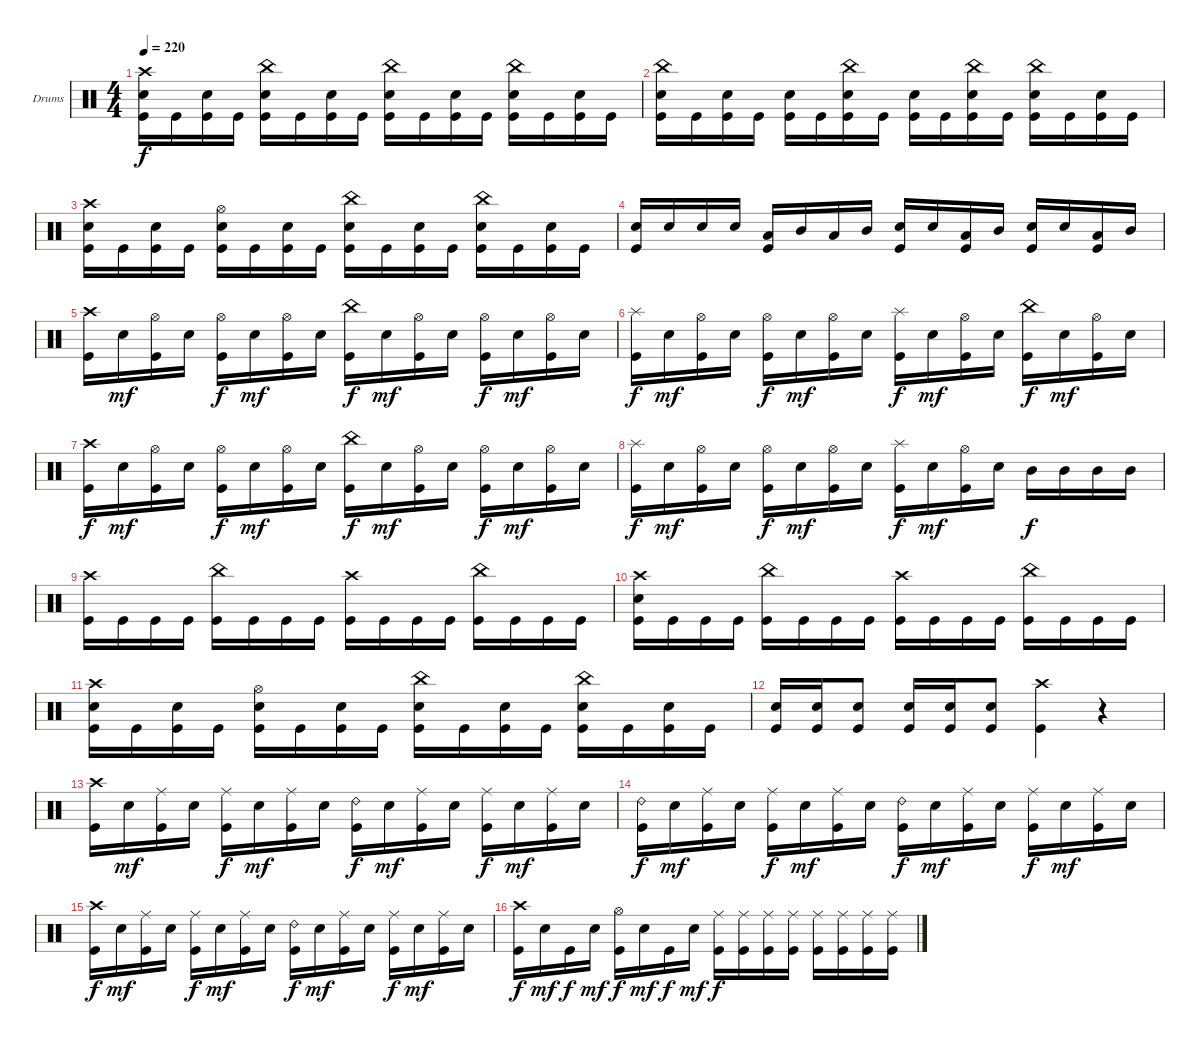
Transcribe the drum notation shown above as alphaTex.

\defaultSystemsLayout 4
\bracketExtendMode groupsimilarinstruments
\firstSystemTrackNameOrientation horizontal
\otherSystemsTrackNameOrientation horizontal
\track ("Drumkit" "Drums") {instrument percussion}
\staff {score}
\articulation defaults
\ts (4 4)
\tempo 220
\clef neutral
\scale
0.333333
\ks c
("Crash high (hit)" "Snare (hit) 2" "Kick (hit)").16{dy f} "Kick (hit)".16 ("Snare (hit) 2" "Kick (hit)").16 "Kick (hit)".16 ("China (hit)" "Snare (hit) 2" "Kick (hit)").16 "Kick (hit)".16 ("Snare (hit) 2" "Kick (hit)").16 "Kick (hit)".16 ("China (hit)" "Snare (hit) 2" "Kick (hit)").16 "Kick (hit)".16 ("Snare (hit) 2" "Kick (hit)").16 "Kick (hit)".16 ("China (hit)" "Snare (hit) 2" "Kick (hit)").16 "Kick (hit)".16 ("Snare (hit) 2" "Kick (hit)").16 "Kick (hit)".16 |
\scale
0.333333 ("China (hit)" "Snare (hit) 2" "Kick (hit)").16 "Kick (hit)".16 ("Snare (hit) 2" "Kick (hit)").16 "Kick (hit)".16 ("Snare (hit) 2" "Kick (hit)").16 "Kick (hit)".16 ("China (hit)" "Snare (hit) 2" "Kick (hit)").16 "Kick (hit)".16 ("Snare (hit) 2" "Kick (hit)").16 "Kick (hit)".16 ("China (hit)" "Snare (hit) 2" "Kick (hit)").16 "Kick (hit)".16 ("China (hit)" "Snare (hit) 2" "Kick (hit)").16 "Kick (hit)".16 ("Snare (hit) 2" "Kick (hit)").16 "Kick (hit)".16 |
\scale
0.333333 ("Crash high (hit)" "Snare (hit) 2" "Kick (hit)").16 "Kick (hit)".16 ("Snare (hit) 2" "Kick (hit)").16 "Kick (hit)".16 ("Hi-Hat (open)" "Snare (hit) 2" "Kick (hit)").16 "Kick (hit)".16 ("Snare (hit) 2" "Kick (hit)").16 "Kick (hit)".16 ("China (hit)" "Snare (hit) 2" "Kick (hit)").16 "Kick (hit)".16 ("Snare (hit) 2" "Kick (hit)").16 "Kick (hit)".16 ("China (hit)" "Snare (hit) 2" "Kick (hit)").16 "Kick (hit)".16 ("Snare (hit) 2" "Kick (hit)").16 "Kick (hit)".16 |
\scale
0.333333 ("Snare (hit) 2" "Kick (hit)").16 "Snare (hit) 2".16 "Snare (hit) 2".16 "Snare (hit) 2".16 ("Low Tom (hit)" "Kick (hit)").16 "Mid Tom (hit)".16 "Low Tom (hit)".16 "Mid Tom (hit)".16 ("Snare (hit) 2" "Kick (hit)").16 "Snare (hit) 2".16 ("Low Tom (hit)" "Kick (hit)").16 "Mid Tom (hit)".16 ("Snare (hit) 2" "Kick (hit)").16 "Snare (hit) 2".16 ("Low Tom (hit)" "Kick (hit)").16 "Mid Tom (hit)".16 |
\scale
0.333333 ("Crash high (hit)" "Kick (hit)").16 "Snare (hit) 2".16{dy mf} ("Hi-Hat (open)" "Kick (hit)").16 "Snare (hit) 2".16 ("Hi-Hat (open)" "Kick (hit)").16{dy f} "Snare (hit) 2".16{dy mf} ("Hi-Hat (open)" "Kick (hit)").16 "Snare (hit) 2".16 ("China (hit)" "Kick (hit)").16{dy f} "Snare (hit) 2".16{dy mf} ("Hi-Hat (open)" "Kick (hit)").16 "Snare (hit) 2".16 ("Hi-Hat (open)" "Kick (hit)").16{dy f} "Snare (hit) 2".16{dy mf} ("Hi-Hat (open)" "Kick (hit)").16 "Snare (hit) 2".16 |
\scale
0.333333 ("Splash (hit)" "Kick (hit)").16{dy f} "Snare (hit) 2".16{dy mf} ("Hi-Hat (open)" "Kick (hit)").16 "Snare (hit) 2".16 ("Hi-Hat (open)" "Kick (hit)").16{dy f} "Snare (hit) 2".16{dy mf} ("Hi-Hat (open)" "Kick (hit)").16 "Snare (hit) 2".16 ("Splash (hit)" "Kick (hit)").16{dy f} "Snare (hit) 2".16{dy mf} ("Hi-Hat (open)" "Kick (hit)").16 "Snare (hit) 2".16 ("China (hit)" "Kick (hit)").16{dy f} "Snare (hit) 2".16{dy mf} ("Hi-Hat (open)" "Kick (hit)").16 "Snare (hit) 2".16 |
\scale
0.333333 ("Crash high (hit)" "Kick (hit)").16{dy f} "Snare (hit) 2".16{dy mf} ("Hi-Hat (open)" "Kick (hit)").16 "Snare (hit) 2".16 ("Hi-Hat (open)" "Kick (hit)").16{dy f} "Snare (hit) 2".16{dy mf} ("Hi-Hat (open)" "Kick (hit)").16 "Snare (hit) 2".16 ("China (hit)" "Kick (hit)").16{dy f} "Snare (hit) 2".16{dy mf} ("Hi-Hat (open)" "Kick (hit)").16 "Snare (hit) 2".16 ("Hi-Hat (open)" "Kick (hit)").16{dy f} "Snare (hit) 2".16{dy mf} ("Hi-Hat (open)" "Kick (hit)").16 "Snare (hit) 2".16 |
\scale
0.333333 ("Splash (hit)" "Kick (hit)").16{dy f} "Snare (hit) 2".16{dy mf} ("Hi-Hat (open)" "Kick (hit)").16 "Snare (hit) 2".16 ("Hi-Hat (open)" "Kick (hit)").16{dy f} "Snare (hit) 2".16{dy mf} ("Hi-Hat (open)" "Kick (hit)").16 "Snare (hit) 2".16 ("Splash (hit)" "Kick (hit)").16{dy f} "Snare (hit) 2".16{dy mf} ("Hi-Hat (open)" "Kick (hit)").16 "Snare (hit) 2".16 "Mid Tom (hit)".16{dy f} "Mid Tom (hit)".16 "Mid Tom (hit)".16 "Mid Tom (hit)".16 |
\scale
0.333333 ("Crash high (hit)" "Kick (hit)").16 "Kick (hit)".16 "Kick (hit)".16 "Kick (hit)".16 ("China (hit)" "Kick (hit)").16 "Kick (hit)".16 "Kick (hit)".16 "Kick (hit)".16 ("Crash high (hit)" "Kick (hit)").16 "Kick (hit)".16 "Kick (hit)".16 "Kick (hit)".16 ("China (hit)" "Kick (hit)").16 "Kick (hit)".16 "Kick (hit)".16 "Kick (hit)".16 |
\scale
0.333333 ("Crash high (hit)" "Snare (hit) 2" "Kick (hit)").16 "Kick (hit)".16 "Kick (hit)".16 "Kick (hit)".16 ("China (hit)" "Kick (hit)").16 "Kick (hit)".16 "Kick (hit)".16 "Kick (hit)".16 ("Crash high (hit)" "Kick (hit)").16 "Kick (hit)".16 "Kick (hit)".16 "Kick (hit)".16 ("China (hit)" "Kick (hit)").16 "Kick (hit)".16 "Kick (hit)".16 "Kick (hit)".16 |
\scale
0.333333 ("Crash high (hit)" "Snare (hit) 2" "Kick (hit)").16 "Kick (hit)".16 ("Snare (hit) 2" "Kick (hit)").16 "Kick (hit)".16 ("Hi-Hat (open)" "Snare (hit) 2" "Kick (hit)").16 "Kick (hit)".16 ("Snare (hit) 2" "Kick (hit)").16 "Kick (hit)".16 ("China (hit)" "Snare (hit) 2" "Kick (hit)").16 "Kick (hit)".16 ("Snare (hit) 2" "Kick (hit)").16 "Kick (hit)".16 ("China (hit)" "Snare (hit) 2" "Kick (hit)").16 "Kick (hit)".16 ("Snare (hit) 2" "Kick (hit)").16 "Kick (hit)".16 |
\scale
0.333333 ("Snare (hit) 2" "Kick (hit)").16 ("Snare (hit) 2" "Kick (hit)").16 ("Snare (hit) 2" "Kick (hit)").8 ("Snare (hit) 2" "Kick (hit)").16 ("Snare (hit) 2" "Kick (hit)").16 ("Snare (hit) 2" "Kick (hit)").8 ("Crash high (hit)" "Kick (hit)").4 r.4 |
\scale
0.333333 ("Crash high (hit)" "Kick (hit)").16 "Snare (hit) 2".16{dy mf} ("Ride (middle)" "Kick (hit)").16 "Snare (hit) 2".16 ("Ride (middle)" "Kick (hit)").16{dy f} "Snare (hit) 2".16{dy mf} ("Ride (middle)" "Kick (hit)").16 "Snare (hit) 2".16 ("Ride (bell) 2" "Kick (hit)").16{dy f} "Snare (hit) 2".16{dy mf} ("Ride (middle)" "Kick (hit)").16 "Snare (hit) 2".16 ("Ride (middle)" "Kick (hit)").16{dy f} "Snare (hit) 2".16{dy mf} ("Ride (middle)" "Kick (hit)").16 "Snare (hit) 2".16 |
\scale
0.333333 ("Ride (bell) 2" "Kick (hit)").16{dy f} "Snare (hit) 2".16{dy mf} ("Ride (middle)" "Kick (hit)").16 "Snare (hit) 2".16 ("Ride (middle)" "Kick (hit)").16{dy f} "Snare (hit) 2".16{dy mf} ("Ride (middle)" "Kick (hit)").16 "Snare (hit) 2".16 ("Ride (bell) 2" "Kick (hit)").16{dy f} "Snare (hit) 2".16{dy mf} ("Ride (middle)" "Kick (hit)").16 "Snare (hit) 2".16 ("Ride (middle)" "Kick (hit)").16{dy f} "Snare (hit) 2".16{dy mf} ("Ride (middle)" "Kick (hit)").16 "Snare (hit) 2".16 |
\scale
0.333333 ("Crash high (hit)" "Kick (hit)").16{dy f} "Snare (hit) 2".16{dy mf} ("Ride (middle)" "Kick (hit)").16 "Snare (hit) 2".16 ("Ride (middle)" "Kick (hit)").16{dy f} "Snare (hit) 2".16{dy mf} ("Ride (middle)" "Kick (hit)").16 "Snare (hit) 2".16 ("Ride (bell) 2" "Kick (hit)").16{dy f} "Snare (hit) 2".16{dy mf} ("Ride (middle)" "Kick (hit)").16 "Snare (hit) 2".16 ("Ride (middle)" "Kick (hit)").16{dy f} "Snare (hit) 2".16{dy mf} ("Ride (middle)" "Kick (hit)").16 "Snare (hit) 2".16 |
\scale
0.333333 ("Crash high (hit)" "Kick (hit)").16{dy f} "Snare (hit) 2".16{dy mf} "Kick (hit)".16{dy f} "Snare (hit) 2".16{dy mf} ("Hi-Hat (open)" "Kick (hit)").16{dy f} "Snare (hit) 2".16{dy mf} "Kick (hit)".16{dy f} "Snare (hit) 2".16{dy mf} ("Ride (middle)" "Kick (hit)").16{dy f} ("Ride (middle)" "Kick (hit)").16 ("Ride (middle)" "Kick (hit)").16 ("Ride (middle)" "Kick (hit)").16 ("Ride (middle)" "Kick (hit)").16 ("Ride (middle)" "Kick (hit)").16 ("Ride (middle)" "Kick (hit)").16 ("Ride (middle)" "Kick (hit)").16
